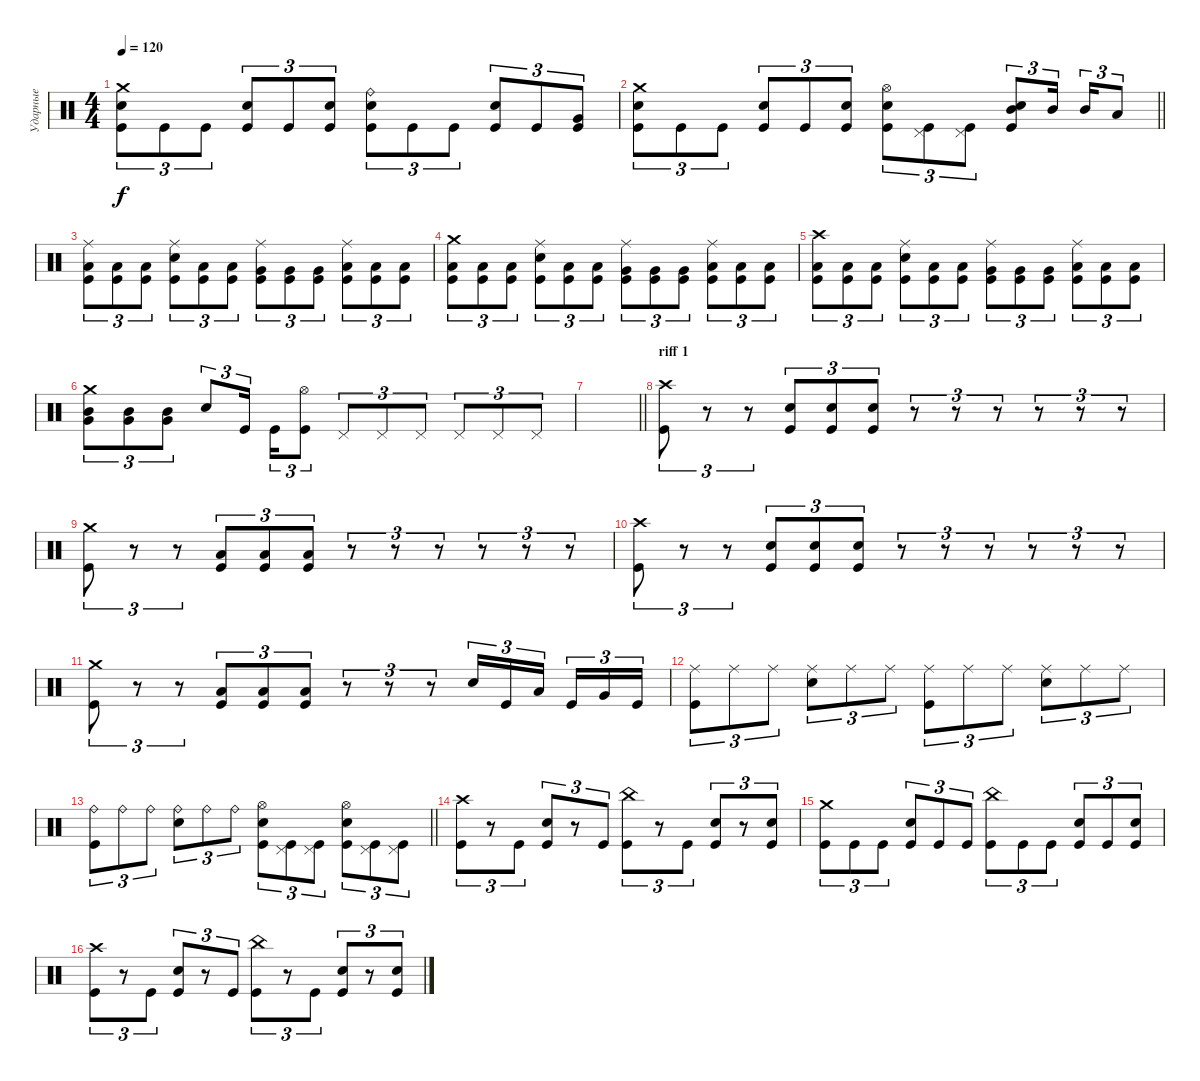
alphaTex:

\track ("Ударные" "Ударные") {instrument percussion}
\staff {score}
\articulation defaults
\ts (4 4)
\tempo 120
\clef neutral
\ks c
("Crash medium (hit)" "Kick (hit)" "Electric Snare (hit)").8{tu (3 2) dy f} "Kick (hit)".8{tu (3 2)} "Kick (hit)".8{tu (3 2)} ("Electric Snare (hit)" "Kick (hit)").8{tu (3 2)} "Kick (hit)".8{tu (3 2)} ("Kick (hit)" "Electric Snare (hit)").8{tu (3 2)} ("Ride (bell)" "Electric Snare (hit)" "Kick (hit)").8{tu (3 2)} "Kick (hit)".8{tu (3 2)} "Kick (hit)".8{tu (3 2)} ("Kick (hit)" "Electric Snare (hit)").8{tu (3 2)} "Kick (hit)".8{tu (3 2)} ("Kick (hit)" "Very Low Tom (hit)").8{tu (3 2)} |
\barLineRight lightlight
("Crash medium (hit)" "Kick (hit)" "Electric Snare (hit)").8{tu (3 2)} "Kick (hit)".8{tu (3 2)} "Kick (hit)".8{tu (3 2)} ("Electric Snare (hit)" "Kick (hit)").8{tu (3 2)} "Kick (hit)".8{tu (3 2)} ("Kick (hit)" "Electric Snare (hit)").8{tu (3 2)} ("Hi-Hat (open)" "Electric Snare (hit)" "Kick (hit)").8{tu (3 2)} ("Pedal Hi-Hat (hit)" "Kick (hit)").8{tu (3 2)} ("Pedal Hi-Hat (hit)" "Kick (hit)").8{tu (3 2)} ("Mid Tom (hit)" "Kick (hit)" "Electric Snare (hit)").8{tu (3 2)} "Mid Tom (hit)".16{tu (3 2) beam splitsecondary} "Mid Tom (hit)".16{tu (3 2)} "Low Tom (hit)".8{tu (3 2)} |
("Kick (hit)" "Low Floor Tom (hit)" "Ride (middle)").8{tu (3 2)} ("Kick (hit)" "Low Floor Tom (hit)").8{tu (3 2)} ("Kick (hit)" "Low Floor Tom (hit)").8{tu (3 2)} ("Kick (hit)" "Electric Snare (hit)" "Ride (middle)").8{tu (3 2)} ("Kick (hit)" "Low Floor Tom (hit)").8{tu (3 2)} ("Kick (hit)" "Low Floor Tom (hit)").8{tu (3 2)} ("Kick (hit)" "Very Low Tom (hit)" "Ride (middle)").8{tu (3 2)} ("Kick (hit)" "Very Low Tom (hit)").8{tu (3 2)} ("Kick (hit)" "Very Low Tom (hit)").8{tu (3 2)} ("Kick (hit)" "Low Tom (hit)" "Ride (middle)").8{tu (3 2)} ("Kick (hit)" "Low Tom (hit)").8{tu (3 2)} ("Kick (hit)" "Low Tom (hit)").8{tu (3 2)} |
("Kick (hit)" "Low Floor Tom (hit)" "Crash medium (hit)").8{tu (3 2)} ("Kick (hit)" "Low Floor Tom (hit)").8{tu (3 2)} ("Kick (hit)" "Low Floor Tom (hit)").8{tu (3 2)} ("Kick (hit)" "Electric Snare (hit)" "Ride (middle)").8{tu (3 2)} ("Kick (hit)" "Low Floor Tom (hit)").8{tu (3 2)} ("Kick (hit)" "Low Floor Tom (hit)").8{tu (3 2)} ("Kick (hit)" "Very Low Tom (hit)" "Ride (middle)").8{tu (3 2)} ("Kick (hit)" "Very Low Tom (hit)").8{tu (3 2)} ("Kick (hit)" "Very Low Tom (hit)").8{tu (3 2)} ("Kick (hit)" "Low Tom (hit)" "Ride (middle)").8{tu (3 2)} ("Kick (hit)" "Low Tom (hit)").8{tu (3 2)} ("Kick (hit)" "Low Tom (hit)").8{tu (3 2)} |
("Kick (hit)" "Low Floor Tom (hit)" "Crash high (hit)").8{tu (3 2)} ("Kick (hit)" "Low Floor Tom (hit)").8{tu (3 2)} ("Kick (hit)" "Low Floor Tom (hit)").8{tu (3 2)} ("Kick (hit)" "Electric Snare (hit)" "Ride (middle)").8{tu (3 2)} ("Kick (hit)" "Low Floor Tom (hit)").8{tu (3 2)} ("Kick (hit)" "Low Floor Tom (hit)").8{tu (3 2)} ("Kick (hit)" "Very Low Tom (hit)" "Ride (middle)").8{tu (3 2)} ("Kick (hit)" "Very Low Tom (hit)").8{tu (3 2)} ("Kick (hit)" "Very Low Tom (hit)").8{tu (3 2)} ("Kick (hit)" "Low Tom (hit)" "Ride (middle)").8{tu (3 2)} ("Kick (hit)" "Low Tom (hit)").8{tu (3 2)} ("Kick (hit)" "Low Tom (hit)").8{tu (3 2)} |
("Very Low Tom (hit)" "Mid Tom (hit)" "Crash medium (hit)").8{tu (3 2)} ("Very Low Tom (hit)" "Mid Tom (hit)").8{tu (3 2)} ("Very Low Tom (hit)" "Mid Tom (hit)").8{tu (3 2)} "Electric Snare (hit)".8{tu (3 2)} "Kick (hit)".16{tu (3 2) beam splitsecondary} "Kick (hit)".16{tu (3 2)} ("Hi-Hat (open)" "Kick (hit)").8{tu (3 2)} "Pedal Hi-Hat (hit)".8{tu (3 2)} "Pedal Hi-Hat (hit)".8{tu (3 2)} "Pedal Hi-Hat (hit)".8{tu (3 2)} "Pedal Hi-Hat (hit)".8{tu (3 2)} "Pedal Hi-Hat (hit)".8{tu (3 2)} "Pedal Hi-Hat (hit)".8{tu (3 2)} |
\barLineRight lightlight
|
\section ("" "riff 1")
("Crash high (hit)" "Kick (hit)").8{tu (3 2)} r.8{tu (3 2)} r.8{tu (3 2)} ("Electric Snare (hit)" "Kick (hit)").8{tu (3 2)} ("Electric Snare (hit)" "Kick (hit)").8{tu (3 2)} ("Electric Snare (hit)" "Kick (hit)").8{tu (3 2)} r.8{tu (3 2)} r.8{tu (3 2)} r.8{tu (3 2)} r.8{tu (3 2)} r.8{tu (3 2)} r.8{tu (3 2)} |
("Crash medium (hit)" "Kick (hit)").8{tu (3 2)} r.8{tu (3 2)} r.8{tu (3 2)} ("Low Floor Tom (hit)" "Kick (hit)").8{tu (3 2)} ("Low Floor Tom (hit)" "Kick (hit)").8{tu (3 2)} ("Low Floor Tom (hit)" "Kick (hit)").8{tu (3 2)} r.8{tu (3 2)} r.8{tu (3 2)} r.8{tu (3 2)} r.8{tu (3 2)} r.8{tu (3 2)} r.8{tu (3 2)} |
("Crash high (hit)" "Kick (hit)").8{tu (3 2)} r.8{tu (3 2)} r.8{tu (3 2)} ("Electric Snare (hit)" "Kick (hit)").8{tu (3 2)} ("Electric Snare (hit)" "Kick (hit)").8{tu (3 2)} ("Electric Snare (hit)" "Kick (hit)").8{tu (3 2)} r.8{tu (3 2)} r.8{tu (3 2)} r.8{tu (3 2)} r.8{tu (3 2)} r.8{tu (3 2)} r.8{tu (3 2)} |
("Crash medium (hit)" "Kick (hit)").8{tu (3 2)} r.8{tu (3 2)} r.8{tu (3 2)} ("Low Floor Tom (hit)" "Kick (hit)").8{tu (3 2)} ("Low Floor Tom (hit)" "Kick (hit)").8{tu (3 2)} ("Low Floor Tom (hit)" "Kick (hit)").8{tu (3 2)} r.8{tu (3 2)} r.8{tu (3 2)} r.8{tu (3 2)} "Electric Snare (hit)".16{tu (3 2)} "Kick (hit)".16{tu (3 2)} "Low Tom (hit)".16{tu (3 2) beam splitsecondary} "Kick (hit)".16{tu (3 2)} "Very Low Tom (hit)".16{tu (3 2)} "Kick (hit)".16{tu (3 2)} |
("Ride (middle)" "Kick (hit)").8{tu (3 2)} "Ride (middle)".8{tu (3 2)} "Ride (middle)".8{tu (3 2)} ("Ride (middle)" "Electric Snare (hit)").8{tu (3 2)} "Ride (middle)".8{tu (3 2)} "Ride (middle)".8{tu (3 2)} ("Ride (middle)" "Kick (hit)").8{tu (3 2)} "Ride (middle)".8{tu (3 2)} "Ride (middle)".8{tu (3 2)} ("Ride (middle)" "Electric Snare (hit)").8{tu (3 2)} "Ride (middle)".8{tu (3 2)} "Ride (middle)".8{tu (3 2)} |
\barLineRight lightlight
("Ride (bell)" "Kick (hit)").8{tu (3 2)} "Ride (bell)".8{tu (3 2)} "Ride (bell)".8{tu (3 2)} ("Ride (bell)" "Electric Snare (hit)").8{tu (3 2)} "Ride (bell)".8{tu (3 2)} "Ride (bell)".8{tu (3 2)} ("Electric Snare (hit)" "Kick (hit)" "Hi-Hat (open)").8{tu (3 2)} ("Kick (hit)" "Pedal Hi-Hat (hit)").8{tu (3 2)} ("Kick (hit)" "Pedal Hi-Hat (hit)").8{tu (3 2)} ("Electric Snare (hit)" "Kick (hit)" "Hi-Hat (open)").8{tu (3 2)} ("Kick (hit)" "Pedal Hi-Hat (hit)").8{tu (3 2)} ("Kick (hit)" "Pedal Hi-Hat (hit)").8{tu (3 2)} |
\section ("" " ")
("Kick (hit)" "Crash high (hit)").8{tu (3 2)} r.8{tu (3 2)} "Kick (hit)".8{tu (3 2)} ("Kick (hit)" "Electric Snare (hit)").8{tu (3 2)} r.8{tu (3 2)} "Kick (hit)".8{tu (3 2)} ("Kick (hit)" "China (hit)").8{tu (3 2)} r.8{tu (3 2)} "Kick (hit)".8{tu (3 2)} ("Kick (hit)" "Electric Snare (hit)").8{tu (3 2)} r.8{tu (3 2)} ("Kick (hit)" "Electric Snare (hit)").8{tu (3 2)} |
("Kick (hit)" "Crash medium (hit)").8{tu (3 2)} "Kick (hit)".8{tu (3 2)} "Kick (hit)".8{tu (3 2)} ("Kick (hit)" "Electric Snare (hit)").8{tu (3 2)} "Kick (hit)".8{tu (3 2)} "Kick (hit)".8{tu (3 2)} ("Kick (hit)" "China (hit)").8{tu (3 2)} "Kick (hit)".8{tu (3 2)} "Kick (hit)".8{tu (3 2)} ("Kick (hit)" "Electric Snare (hit)").8{tu (3 2)} "Kick (hit)".8{tu (3 2)} ("Kick (hit)" "Electric Snare (hit)").8{tu (3 2)} |
("Kick (hit)" "Crash high (hit)").8{tu (3 2)} r.8{tu (3 2)} "Kick (hit)".8{tu (3 2)} ("Kick (hit)" "Electric Snare (hit)").8{tu (3 2)} r.8{tu (3 2)} "Kick (hit)".8{tu (3 2)} ("Kick (hit)" "China (hit)").8{tu (3 2)} r.8{tu (3 2)} "Kick (hit)".8{tu (3 2)} ("Kick (hit)" "Electric Snare (hit)").8{tu (3 2)} r.8{tu (3 2)} ("Kick (hit)" "Electric Snare (hit)").8{tu (3 2)}
